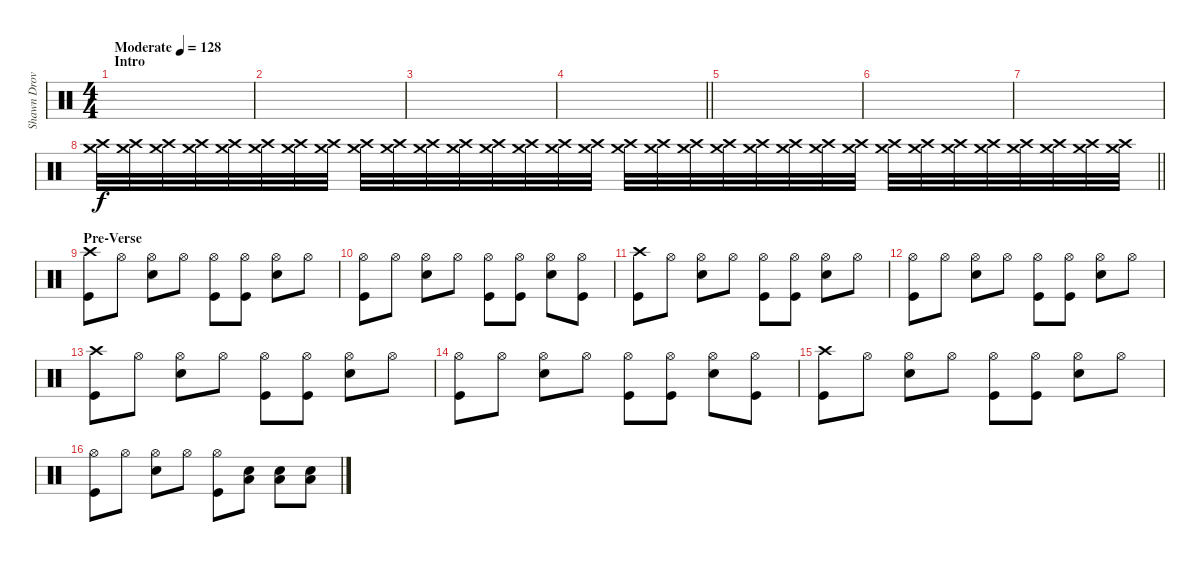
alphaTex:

\track ("Shawn Drover" "Shawn Drov") {instrument percussion}
\staff {score}
\articulation defaults
\ts (4 4)
\section ("" "Intro")
\tempo (128 "Moderate")
\clef neutral
\ks c
|
|
|
\barLineRight lightlight
|
|
|
|
\barLineRight lightlight
("Crash high (hit)" "Crash medium (hit)").32{volume 2} ("Crash high (hit)" "Crash medium (hit)").32{volume 13} ("Crash high (hit)" "Crash medium (hit)").32 ("Crash high (hit)" "Crash medium (hit)").32 ("Crash high (hit)" "Crash medium (hit)").32 ("Crash high (hit)" "Crash medium (hit)").32 ("Crash high (hit)" "Crash medium (hit)").32 ("Crash high (hit)" "Crash medium (hit)").32 ("Crash high (hit)" "Crash medium (hit)").32 ("Crash high (hit)" "Crash medium (hit)").32 ("Crash high (hit)" "Crash medium (hit)").32 ("Crash high (hit)" "Crash medium (hit)").32 ("Crash high (hit)" "Crash medium (hit)").32 ("Crash high (hit)" "Crash medium (hit)").32 ("Crash high (hit)" "Crash medium (hit)").32 ("Crash high (hit)" "Crash medium (hit)").32 ("Crash high (hit)" "Crash medium (hit)").32 ("Crash high (hit)" "Crash medium (hit)").32 ("Crash high (hit)" "Crash medium (hit)").32 ("Crash high (hit)" "Crash medium (hit)").32 ("Crash high (hit)" "Crash medium (hit)").32 ("Crash high (hit)" "Crash medium (hit)").32 ("Crash high (hit)" "Crash medium (hit)").32 ("Crash high (hit)" "Crash medium (hit)").32 ("Crash high (hit)" "Crash medium (hit)").32 ("Crash high (hit)" "Crash medium (hit)").32 ("Crash high (hit)" "Crash medium (hit)").32 ("Crash high (hit)" "Crash medium (hit)").32 ("Crash high (hit)" "Crash medium (hit)").32 ("Crash high (hit)" "Crash medium (hit)").32 ("Crash high (hit)" "Crash medium (hit)").32 ("Crash high (hit)" "Crash medium (hit)").32 |
\section ("" "Pre-Verse")
("Crash high (hit)" "Kick (hit)").8 "Hi-Hat (open)".8 ("Hi-Hat (open)" "Snare (hit) 2").8 "Hi-Hat (open)".8 ("Hi-Hat (open)" "Kick (hit)").8 ("Hi-Hat (open)" "Kick (hit)").8 ("Hi-Hat (open)" "Snare (hit) 2").8 "Hi-Hat (open)".8 |
("Hi-Hat (open)" "Kick (hit)").8 "Hi-Hat (open)".8 ("Hi-Hat (open)" "Snare (hit) 2").8 "Hi-Hat (open)".8 ("Hi-Hat (open)" "Kick (hit)").8 ("Hi-Hat (open)" "Kick (hit)").8 ("Hi-Hat (open)" "Snare (hit) 2").8 ("Hi-Hat (open)" "Kick (hit)").8 |
("Crash high (hit)" "Kick (hit)").8 "Hi-Hat (open)".8 ("Hi-Hat (open)" "Snare (hit) 2").8 "Hi-Hat (open)".8 ("Hi-Hat (open)" "Kick (hit)").8 ("Hi-Hat (open)" "Kick (hit)").8 ("Hi-Hat (open)" "Snare (hit) 2").8 "Hi-Hat (open)".8 |
("Hi-Hat (open)" "Kick (hit)").8 "Hi-Hat (open)".8 ("Hi-Hat (open)" "Snare (hit) 2").8 "Hi-Hat (open)".8 ("Hi-Hat (open)" "Kick (hit)").8 ("Hi-Hat (open)" "Kick (hit)").8 ("Hi-Hat (open)" "Snare (hit) 2").8 "Hi-Hat (open)".8 |
("Crash high (hit)" "Kick (hit)").8 "Hi-Hat (open)".8 ("Hi-Hat (open)" "Snare (hit) 2").8 "Hi-Hat (open)".8 ("Hi-Hat (open)" "Kick (hit)").8 ("Hi-Hat (open)" "Kick (hit)").8 ("Hi-Hat (open)" "Snare (hit) 2").8 "Hi-Hat (open)".8 |
("Hi-Hat (open)" "Kick (hit)").8 "Hi-Hat (open)".8 ("Hi-Hat (open)" "Snare (hit) 2").8 "Hi-Hat (open)".8 ("Hi-Hat (open)" "Kick (hit)").8 ("Hi-Hat (open)" "Kick (hit)").8 ("Hi-Hat (open)" "Snare (hit) 2").8 ("Hi-Hat (open)" "Kick (hit)").8 |
("Crash high (hit)" "Kick (hit)").8 "Hi-Hat (open)".8 ("Hi-Hat (open)" "Snare (hit) 2").8 "Hi-Hat (open)".8 ("Hi-Hat (open)" "Kick (hit)").8 ("Hi-Hat (open)" "Kick (hit)").8 ("Hi-Hat (open)" "Snare (hit) 2").8 "Hi-Hat (open)".8 |
("Hi-Hat (open)" "Kick (hit)").8 "Hi-Hat (open)".8 ("Hi-Hat (open)" "Snare (hit) 2").8 "Hi-Hat (open)".8 ("Hi-Hat (open)" "Kick (hit)").8 ("Snare (hit) 2" "Low Floor Tom (hit)").8 ("Snare (hit) 2" "Low Floor Tom (hit)").8 ("Snare (hit) 2" "Low Floor Tom (hit)").8
